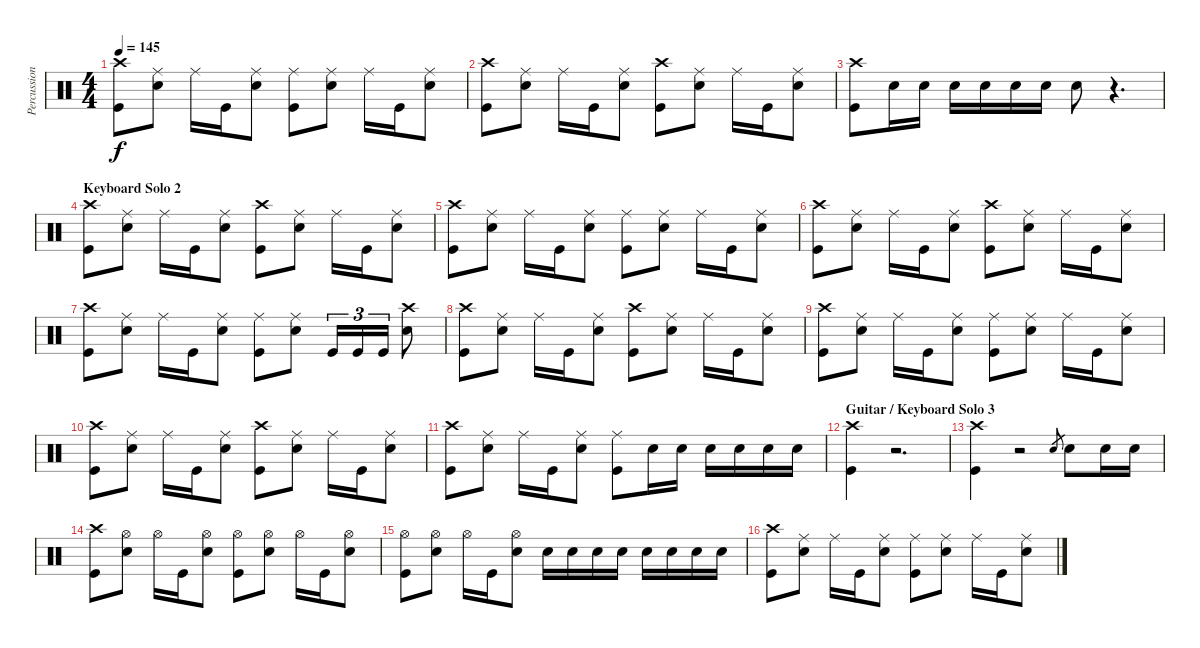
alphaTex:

\track ("Percussions" "Percussion") {instrument percussion}
\staff {score}
\articulation defaults
\ts (4 4)
\tempo 145
\clef neutral
\ks c
("Crash high (hit)" "Kick (hit)").8{dy f} ("Ride (middle)" "Snare (hit) 2").8 "Ride (middle)".16 "Kick (hit)".16 ("Ride (middle)" "Snare (hit) 2").8 ("Ride (middle)" "Kick (hit)").8 ("Ride (middle)" "Snare (hit) 2").8 "Ride (middle)".16 "Kick (hit)".16 ("Ride (middle)" "Snare (hit) 2").8 |
("Crash high (hit)" "Kick (hit)").8 ("Ride (middle)" "Snare (hit) 2").8 "Ride (middle)".16 "Kick (hit)".16 ("Ride (middle)" "Snare (hit) 2").8 ("Crash high (hit)" "Kick (hit)").8 ("Ride (middle)" "Snare (hit) 2").8 "Ride (middle)".16 "Kick (hit)".16 ("Ride (middle)" "Snare (hit) 2").8 |
("Crash high (hit)" "Kick (hit)").8 "Snare (hit) 2".16 "Snare (hit) 2".16 "Snare (hit) 2".16 "Snare (hit) 2".16 "Snare (hit) 2".16 "Snare (hit) 2".16 "Snare (hit) 2".8 r.4{d} |
\section ("" "Keyboard Solo 2")
("Crash high (hit)" "Kick (hit)").8 ("Ride (middle)" "Snare (hit) 2").8 "Ride (middle)".16 "Kick (hit)".16 ("Ride (middle)" "Snare (hit) 2").8 ("Crash high (hit)" "Kick (hit)").8 ("Ride (middle)" "Snare (hit) 2").8 "Ride (middle)".16 "Kick (hit)".16 ("Ride (middle)" "Snare (hit) 2").8 |
("Crash high (hit)" "Kick (hit)").8 ("Ride (middle)" "Snare (hit) 2").8 "Ride (middle)".16 "Kick (hit)".16 ("Ride (middle)" "Snare (hit) 2").8 ("Ride (middle)" "Kick (hit)").8 ("Ride (middle)" "Snare (hit) 2").8 "Ride (middle)".16 "Kick (hit)".16 ("Ride (middle)" "Snare (hit) 2").8 |
("Crash high (hit)" "Kick (hit)").8 ("Ride (middle)" "Snare (hit) 2").8 "Ride (middle)".16 "Kick (hit)".16 ("Ride (middle)" "Snare (hit) 2").8 ("Crash high (hit)" "Kick (hit)").8 ("Ride (middle)" "Snare (hit) 2").8 "Ride (middle)".16 "Kick (hit)".16 ("Ride (middle)" "Snare (hit) 2").8 |
("Crash high (hit)" "Kick (hit)").8 ("Ride (middle)" "Snare (hit) 2").8 "Ride (middle)".16 "Kick (hit)".16 ("Ride (middle)" "Snare (hit) 2").8 ("Ride (middle)" "Kick (hit)").8 ("Ride (middle)" "Snare (hit) 2").8 "Kick (hit)".16{tu (3 2)} "Kick (hit)".16{tu (3 2)} "Kick (hit)".16{tu (3 2)} ("Crash high (hit)" "Snare (hit) 2").8 |
("Crash high (hit)" "Kick (hit)").8 ("Ride (middle)" "Snare (hit) 2").8 "Ride (middle)".16 "Kick (hit)".16 ("Ride (middle)" "Snare (hit) 2").8 ("Crash high (hit)" "Kick (hit)").8 ("Ride (middle)" "Snare (hit) 2").8 "Ride (middle)".16 "Kick (hit)".16 ("Ride (middle)" "Snare (hit) 2").8 |
("Crash high (hit)" "Kick (hit)").8 ("Ride (middle)" "Snare (hit) 2").8 "Ride (middle)".16 "Kick (hit)".16 ("Ride (middle)" "Snare (hit) 2").8 ("Ride (middle)" "Kick (hit)").8 ("Ride (middle)" "Snare (hit) 2").8 "Ride (middle)".16 "Kick (hit)".16 ("Ride (middle)" "Snare (hit) 2").8 |
("Crash high (hit)" "Kick (hit)").8 ("Ride (middle)" "Snare (hit) 2").8 "Ride (middle)".16 "Kick (hit)".16 ("Ride (middle)" "Snare (hit) 2").8 ("Crash high (hit)" "Kick (hit)").8 ("Ride (middle)" "Snare (hit) 2").8 "Ride (middle)".16 "Kick (hit)".16 ("Ride (middle)" "Snare (hit) 2").8 |
("Crash high (hit)" "Kick (hit)").8 ("Ride (middle)" "Snare (hit) 2").8 "Ride (middle)".16 "Kick (hit)".16 ("Ride (middle)" "Snare (hit) 2").8 ("Ride (middle)" "Kick (hit)").8 "Snare (hit) 2".16 "Snare (hit) 2".16 "Snare (hit) 2".16 "Snare (hit) 2".16 "Snare (hit) 2".16 "Snare (hit) 2".16 |
\section ("" "Guitar / Keyboard Solo 3")
("Crash high (hit)" "Kick (hit)").4 r.2{d} |
("Crash high (hit)" "Kick (hit)").4 r.2 "Snare (hit) 2".8{gr} "Snare (hit) 2".8 "Snare (hit) 2".16 "Snare (hit) 2".16 |
("Crash high (hit)" "Kick (hit)").8 ("Hi-Hat (open)" "Snare (hit) 2").8 "Hi-Hat (open)".16 "Kick (hit)".16 ("Hi-Hat (open)" "Snare (hit) 2").8 ("Hi-Hat (open)" "Kick (hit)").8 ("Hi-Hat (open)" "Snare (hit) 2").8 "Hi-Hat (open)".16 "Kick (hit)".16 ("Hi-Hat (open)" "Snare (hit) 2").8 |
("Hi-Hat (open)" "Kick (hit)").8 ("Hi-Hat (open)" "Snare (hit) 2").8 "Hi-Hat (open)".16 "Kick (hit)".16 ("Hi-Hat (open)" "Snare (hit) 2").8 "Snare (hit) 2".16 "Snare (hit) 2".16 "Snare (hit) 2".16 "Snare (hit) 2".16 "Snare (hit) 2".16 "Snare (hit) 2".16 "Snare (hit) 2".16 "Snare (hit) 2".16 |
("Crash high (hit)" "Kick (hit)").8 ("Ride (middle)" "Snare (hit) 2").8 "Ride (middle)".16 "Kick (hit)".16 ("Ride (middle)" "Snare (hit) 2").8 ("Ride (middle)" "Kick (hit)").8 ("Ride (middle)" "Snare (hit) 2").8 "Ride (middle)".16 "Kick (hit)".16 ("Ride (middle)" "Snare (hit) 2").8
